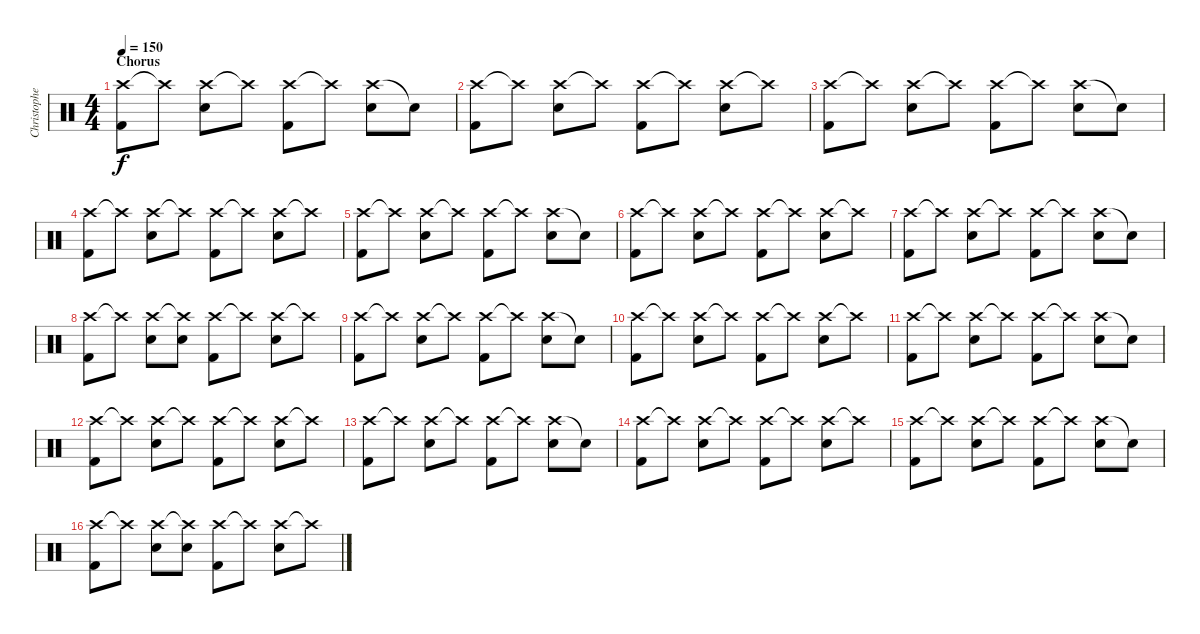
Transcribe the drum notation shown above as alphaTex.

\track ("Christopher Schneider" "Christophe") {instrument percussion}
\staff {score}
\articulation defaults
\ts (4 4)
\section ("" "Chorus")
\tempo 150
\clef neutral
\ks c
("Crash high (hit)" "Kick (hit) 2").8{dy f} "Crash high (hit)"{t}.8 ("Crash high (hit)" "Electric Snare (hit)").8 "Crash high (hit)"{t}.8 ("Crash high (hit)" "Kick (hit) 2").8 "Crash high (hit)"{t}.8 ("Crash high (hit)" "Electric Snare (hit)").8 "Snare (hit)"{t}.8 |
("Crash high (hit)" "Kick (hit) 2").8 "Crash high (hit)"{t}.8 ("Crash high (hit)" "Electric Snare (hit)").8 "Crash high (hit)"{t}.8 ("Crash high (hit)" "Kick (hit) 2").8 "Crash high (hit)"{t}.8 ("Crash high (hit)" "Electric Snare (hit)").8 "Crash high (hit)"{t}.8 |
("Crash high (hit)" "Kick (hit) 2").8 "Crash high (hit)"{t}.8 ("Crash high (hit)" "Electric Snare (hit)").8 "Crash high (hit)"{t}.8 ("Crash high (hit)" "Kick (hit) 2").8 "Crash high (hit)"{t}.8 ("Crash high (hit)" "Electric Snare (hit)").8 "Snare (hit)"{t}.8 |
("Crash high (hit)" "Kick (hit) 2").8 "Crash high (hit)"{t}.8 ("Crash high (hit)" "Electric Snare (hit)").8 "Crash high (hit)"{t}.8 ("Crash high (hit)" "Kick (hit) 2").8 "Crash high (hit)"{t}.8 ("Crash high (hit)" "Electric Snare (hit)").8 "Crash high (hit)"{t}.8 |
("Crash high (hit)" "Kick (hit) 2").8 "Crash high (hit)"{t}.8 ("Crash high (hit)" "Electric Snare (hit)").8 "Crash high (hit)"{t}.8 ("Crash high (hit)" "Kick (hit) 2").8 "Crash high (hit)"{t}.8 ("Crash high (hit)" "Electric Snare (hit)").8 "Snare (hit)"{t}.8 |
("Crash high (hit)" "Kick (hit) 2").8 "Crash high (hit)"{t}.8 ("Crash high (hit)" "Electric Snare (hit)").8 "Crash high (hit)"{t}.8 ("Crash high (hit)" "Kick (hit) 2").8 "Crash high (hit)"{t}.8 ("Crash high (hit)" "Electric Snare (hit)").8 "Crash high (hit)"{t}.8 |
("Crash high (hit)" "Kick (hit) 2").8 "Crash high (hit)"{t}.8 ("Crash high (hit)" "Electric Snare (hit)").8 "Crash high (hit)"{t}.8 ("Crash high (hit)" "Kick (hit) 2").8 "Crash high (hit)"{t}.8 ("Crash high (hit)" "Electric Snare (hit)").8 "Snare (hit)"{t}.8 |
("Crash high (hit)" "Kick (hit) 2").8 "Crash high (hit)"{t}.8 ("Crash high (hit)" "Electric Snare (hit)").8 ("Crash high (hit)"{t} "Electric Snare (hit)").8 ("Crash high (hit)" "Kick (hit) 2").8 "Crash high (hit)"{t}.8 ("Crash high (hit)" "Electric Snare (hit)").8 "Crash high (hit)"{t}.8 |
("Crash high (hit)" "Kick (hit) 2").8 "Crash high (hit)"{t}.8 ("Crash high (hit)" "Electric Snare (hit)").8 "Crash high (hit)"{t}.8 ("Crash high (hit)" "Kick (hit) 2").8 "Crash high (hit)"{t}.8 ("Crash high (hit)" "Electric Snare (hit)").8 "Snare (hit)"{t}.8 |
("Crash high (hit)" "Kick (hit) 2").8 "Crash high (hit)"{t}.8 ("Crash high (hit)" "Electric Snare (hit)").8 "Crash high (hit)"{t}.8 ("Crash high (hit)" "Kick (hit) 2").8 "Crash high (hit)"{t}.8 ("Crash high (hit)" "Electric Snare (hit)").8 "Crash high (hit)"{t}.8 |
("Crash high (hit)" "Kick (hit) 2").8 "Crash high (hit)"{t}.8 ("Crash high (hit)" "Electric Snare (hit)").8 "Crash high (hit)"{t}.8 ("Crash high (hit)" "Kick (hit) 2").8 "Crash high (hit)"{t}.8 ("Crash high (hit)" "Electric Snare (hit)").8 "Snare (hit)"{t}.8 |
("Crash high (hit)" "Kick (hit) 2").8 "Crash high (hit)"{t}.8 ("Crash high (hit)" "Electric Snare (hit)").8 "Crash high (hit)"{t}.8 ("Crash high (hit)" "Kick (hit) 2").8 "Crash high (hit)"{t}.8 ("Crash high (hit)" "Electric Snare (hit)").8 "Crash high (hit)"{t}.8 |
("Crash high (hit)" "Kick (hit) 2").8 "Crash high (hit)"{t}.8 ("Crash high (hit)" "Electric Snare (hit)").8 "Crash high (hit)"{t}.8 ("Crash high (hit)" "Kick (hit) 2").8 "Crash high (hit)"{t}.8 ("Crash high (hit)" "Electric Snare (hit)").8 "Snare (hit)"{t}.8 |
("Crash high (hit)" "Kick (hit) 2").8 "Crash high (hit)"{t}.8 ("Crash high (hit)" "Electric Snare (hit)").8 "Crash high (hit)"{t}.8 ("Crash high (hit)" "Kick (hit) 2").8 "Crash high (hit)"{t}.8 ("Crash high (hit)" "Electric Snare (hit)").8 "Crash high (hit)"{t}.8 |
("Crash high (hit)" "Kick (hit) 2").8 "Crash high (hit)"{t}.8 ("Crash high (hit)" "Electric Snare (hit)").8 "Crash high (hit)"{t}.8 ("Crash high (hit)" "Kick (hit) 2").8 "Crash high (hit)"{t}.8 ("Crash high (hit)" "Electric Snare (hit)").8 "Snare (hit)"{t}.8 |
("Crash high (hit)" "Kick (hit) 2").8 "Crash high (hit)"{t}.8 ("Crash high (hit)" "Electric Snare (hit)").8 ("Crash high (hit)"{t} "Electric Snare (hit)").8 ("Crash high (hit)" "Kick (hit) 2").8 "Crash high (hit)"{t}.8 ("Crash high (hit)" "Electric Snare (hit)").8 "Crash high (hit)"{t}.8
